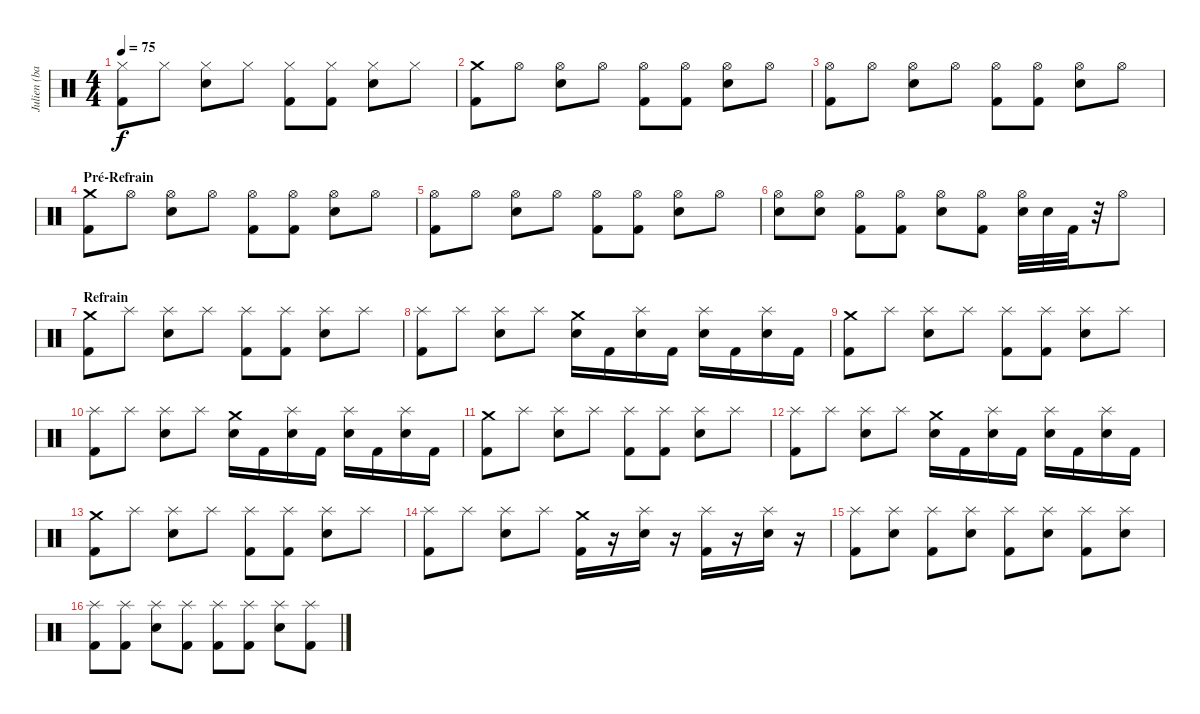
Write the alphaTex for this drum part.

\track ("Julien (batterie)" "Julien (ba") {instrument percussion}
\staff {score}
\articulation defaults
\ts (4 4)
\tempo 75
\clef neutral
\ks c
("Hi-Hat (closed)" "Kick (hit) 2").8{dy f} "Hi-Hat (closed)".8 ("Hi-Hat (closed)" "Electric Snare (hit)").8 "Hi-Hat (closed)".8 ("Hi-Hat (closed)" "Kick (hit) 2").8 ("Hi-Hat (closed)" "Kick (hit) 2").8 ("Hi-Hat (closed)" "Electric Snare (hit)").8 "Hi-Hat (closed)".8 |
("Crash medium (hit)" "Kick (hit) 2").8 "Hi-Hat (open)".8 ("Hi-Hat (open)" "Electric Snare (hit)").8 "Hi-Hat (open)".8 ("Hi-Hat (open)" "Kick (hit) 2").8 ("Hi-Hat (open)" "Kick (hit) 2").8 ("Hi-Hat (open)" "Electric Snare (hit)").8 "Hi-Hat (open)".8 |
("Hi-Hat (open)" "Kick (hit) 2").8 "Hi-Hat (open)".8 ("Hi-Hat (open)" "Electric Snare (hit)").8 "Hi-Hat (open)".8 ("Hi-Hat (open)" "Kick (hit) 2").8 ("Hi-Hat (open)" "Kick (hit) 2").8 ("Hi-Hat (open)" "Electric Snare (hit)").8 "Hi-Hat (open)".8 |
\section ("" "Pré-Refrain")
("Crash medium (hit)" "Kick (hit) 2").8 "Hi-Hat (open)".8 ("Hi-Hat (open)" "Electric Snare (hit)").8 "Hi-Hat (open)".8 ("Hi-Hat (open)" "Kick (hit) 2").8 ("Hi-Hat (open)" "Kick (hit) 2").8 ("Hi-Hat (open)" "Electric Snare (hit)").8 "Hi-Hat (open)".8 |
("Hi-Hat (open)" "Kick (hit) 2").8 "Hi-Hat (open)".8 ("Hi-Hat (open)" "Electric Snare (hit)").8 "Hi-Hat (open)".8 ("Hi-Hat (open)" "Kick (hit) 2").8 ("Hi-Hat (open)" "Kick (hit) 2").8 ("Hi-Hat (open)" "Electric Snare (hit)").8 "Hi-Hat (open)".8 |
("Hi-Hat (open)" "Electric Snare (hit)").8 ("Hi-Hat (open)" "Electric Snare (hit)").8 ("Hi-Hat (open)" "Kick (hit) 2").8 ("Hi-Hat (open)" "Kick (hit) 2").8 ("Hi-Hat (open)" "Electric Snare (hit)").8 ("Hi-Hat (open)" "Kick (hit) 2").8 ("Hi-Hat (open)" "Electric Snare (hit)").32 "Electric Snare (hit)".32 "Kick (hit) 2".32 r.32 "Hi-Hat (open)".8 |
\section ("" "Refrain ")
("Crash medium (hit)" "Kick (hit) 2").8 "Splash (hit)".8 ("Splash (hit)" "Electric Snare (hit)").8 "Splash (hit)".8 ("Splash (hit)" "Kick (hit) 2").8 ("Splash (hit)" "Kick (hit) 2").8 ("Splash (hit)" "Electric Snare (hit)").8 "Splash (hit)".8 |
("Splash (hit)" "Kick (hit) 2").8 "Splash (hit)".8 ("Splash (hit)" "Electric Snare (hit)").8 "Splash (hit)".8 ("Crash medium (hit)" "Electric Snare (hit)").16 "Kick (hit) 2".16 ("Splash (hit)" "Electric Snare (hit)").16 "Kick (hit) 2".16 ("Splash (hit)" "Electric Snare (hit)").16 "Kick (hit) 2".16 ("Splash (hit)" "Electric Snare (hit)").16 "Kick (hit) 2".16 |
("Crash medium (hit)" "Kick (hit) 2").8 "Splash (hit)".8 ("Splash (hit)" "Electric Snare (hit)").8 "Splash (hit)".8 ("Splash (hit)" "Kick (hit) 2").8 ("Splash (hit)" "Kick (hit) 2").8 ("Splash (hit)" "Electric Snare (hit)").8 "Splash (hit)".8 |
("Splash (hit)" "Kick (hit) 2").8 "Splash (hit)".8 ("Splash (hit)" "Electric Snare (hit)").8 "Splash (hit)".8 ("Crash medium (hit)" "Electric Snare (hit)").16 "Kick (hit) 2".16 ("Splash (hit)" "Electric Snare (hit)").16 "Kick (hit) 2".16 ("Splash (hit)" "Electric Snare (hit)").16 "Kick (hit) 2".16 ("Splash (hit)" "Electric Snare (hit)").16 "Kick (hit) 2".16 |
("Crash medium (hit)" "Kick (hit) 2").8 "Splash (hit)".8 ("Splash (hit)" "Electric Snare (hit)").8 "Splash (hit)".8 ("Splash (hit)" "Kick (hit) 2").8 ("Splash (hit)" "Kick (hit) 2").8 ("Splash (hit)" "Electric Snare (hit)").8 "Splash (hit)".8 |
("Splash (hit)" "Kick (hit) 2").8 "Splash (hit)".8 ("Splash (hit)" "Electric Snare (hit)").8 "Splash (hit)".8 ("Crash medium (hit)" "Electric Snare (hit)").16 "Kick (hit) 2".16 ("Splash (hit)" "Electric Snare (hit)").16 "Kick (hit) 2".16 ("Splash (hit)" "Electric Snare (hit)").16 "Kick (hit) 2".16 ("Splash (hit)" "Electric Snare (hit)").16 "Kick (hit) 2".16 |
("Crash medium (hit)" "Kick (hit) 2").8 "Splash (hit)".8 ("Splash (hit)" "Electric Snare (hit)").8 "Splash (hit)".8 ("Splash (hit)" "Kick (hit) 2").8 ("Splash (hit)" "Kick (hit) 2").8 ("Splash (hit)" "Electric Snare (hit)").8 "Splash (hit)".8 |
("Splash (hit)" "Kick (hit) 2").8 "Splash (hit)".8 ("Splash (hit)" "Electric Snare (hit)").8 "Splash (hit)".8 ("Crash medium (hit)" "Kick (hit) 2").16 r.16 ("Splash (hit)" "Electric Snare (hit)").16 r.16 ("Splash (hit)" "Kick (hit) 2").16 r.16 ("Splash (hit)" "Electric Snare (hit)").16 r.16 |
("Splash (hit)" "Kick (hit) 2").8 ("Splash (hit)" "Electric Snare (hit)").8 ("Splash (hit)" "Kick (hit) 2").8 ("Splash (hit)" "Electric Snare (hit)").8 ("Splash (hit)" "Kick (hit) 2").8 ("Splash (hit)" "Electric Snare (hit)").8 ("Splash (hit)" "Kick (hit) 2").8 ("Splash (hit)" "Electric Snare (hit)").8 |
("Splash (hit)" "Kick (hit) 2").8 ("Splash (hit)" "Kick (hit) 2").8 ("Splash (hit)" "Electric Snare (hit)").8 ("Splash (hit)" "Kick (hit) 2").8 ("Splash (hit)" "Kick (hit) 2").8 ("Splash (hit)" "Kick (hit) 2").8 ("Splash (hit)" "Electric Snare (hit)").8 ("Splash (hit)" "Kick (hit) 2").8
